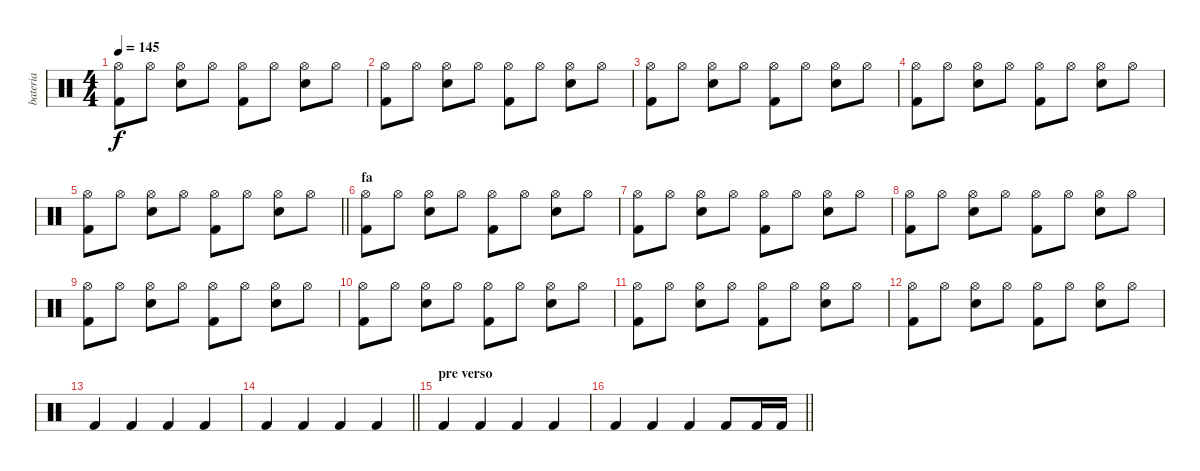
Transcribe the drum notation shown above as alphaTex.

\track ("bateria" "bateria") {instrument percussion}
\staff {score}
\articulation defaults
\ts (4 4)
\tempo 145
\clef neutral
\ks c
("Hi-Hat (open)" "Kick (hit) 2").8{dy f} "Hi-Hat (open)".8 ("Hi-Hat (open)" "Electric Snare (hit)").8 "Hi-Hat (open)".8 ("Hi-Hat (open)" "Kick (hit) 2").8 "Hi-Hat (open)".8 ("Hi-Hat (open)" "Electric Snare (hit)").8 "Hi-Hat (open)".8 |
("Hi-Hat (open)" "Kick (hit) 2").8 "Hi-Hat (open)".8 ("Hi-Hat (open)" "Electric Snare (hit)").8 "Hi-Hat (open)".8 ("Hi-Hat (open)" "Kick (hit) 2").8 "Hi-Hat (open)".8 ("Hi-Hat (open)" "Electric Snare (hit)").8 "Hi-Hat (open)".8 |
("Hi-Hat (open)" "Kick (hit) 2").8 "Hi-Hat (open)".8 ("Hi-Hat (open)" "Electric Snare (hit)").8 "Hi-Hat (open)".8 ("Hi-Hat (open)" "Kick (hit) 2").8 "Hi-Hat (open)".8 ("Hi-Hat (open)" "Electric Snare (hit)").8 "Hi-Hat (open)".8 |
("Hi-Hat (open)" "Kick (hit) 2").8 "Hi-Hat (open)".8 ("Hi-Hat (open)" "Electric Snare (hit)").8 "Hi-Hat (open)".8 ("Hi-Hat (open)" "Kick (hit) 2").8 "Hi-Hat (open)".8 ("Hi-Hat (open)" "Electric Snare (hit)").8 "Hi-Hat (open)".8 |
\barLineRight lightlight
("Hi-Hat (open)" "Kick (hit) 2").8 "Hi-Hat (open)".8 ("Hi-Hat (open)" "Electric Snare (hit)").8 "Hi-Hat (open)".8 ("Hi-Hat (open)" "Kick (hit) 2").8 "Hi-Hat (open)".8 ("Hi-Hat (open)" "Electric Snare (hit)").8 "Hi-Hat (open)".8 |
\section ("" "fa")
("Hi-Hat (open)" "Kick (hit) 2").8 "Hi-Hat (open)".8 ("Hi-Hat (open)" "Electric Snare (hit)").8 "Hi-Hat (open)".8 ("Hi-Hat (open)" "Kick (hit) 2").8 "Hi-Hat (open)".8 ("Hi-Hat (open)" "Electric Snare (hit)").8 "Hi-Hat (open)".8 |
("Hi-Hat (open)" "Kick (hit) 2").8 "Hi-Hat (open)".8 ("Hi-Hat (open)" "Electric Snare (hit)").8 "Hi-Hat (open)".8 ("Hi-Hat (open)" "Kick (hit) 2").8 "Hi-Hat (open)".8 ("Hi-Hat (open)" "Electric Snare (hit)").8 "Hi-Hat (open)".8 |
("Hi-Hat (open)" "Kick (hit) 2").8 "Hi-Hat (open)".8 ("Hi-Hat (open)" "Electric Snare (hit)").8 "Hi-Hat (open)".8 ("Hi-Hat (open)" "Kick (hit) 2").8 "Hi-Hat (open)".8 ("Hi-Hat (open)" "Electric Snare (hit)").8 "Hi-Hat (open)".8 |
("Hi-Hat (open)" "Kick (hit) 2").8 "Hi-Hat (open)".8 ("Hi-Hat (open)" "Electric Snare (hit)").8 "Hi-Hat (open)".8 ("Hi-Hat (open)" "Kick (hit) 2").8 "Hi-Hat (open)".8 ("Hi-Hat (open)" "Electric Snare (hit)").8 "Hi-Hat (open)".8 |
("Hi-Hat (open)" "Kick (hit) 2").8 "Hi-Hat (open)".8 ("Hi-Hat (open)" "Electric Snare (hit)").8 "Hi-Hat (open)".8 ("Hi-Hat (open)" "Kick (hit) 2").8 "Hi-Hat (open)".8 ("Hi-Hat (open)" "Electric Snare (hit)").8 "Hi-Hat (open)".8 |
("Hi-Hat (open)" "Kick (hit) 2").8 "Hi-Hat (open)".8 ("Hi-Hat (open)" "Electric Snare (hit)").8 "Hi-Hat (open)".8 ("Hi-Hat (open)" "Kick (hit) 2").8 "Hi-Hat (open)".8 ("Hi-Hat (open)" "Electric Snare (hit)").8 "Hi-Hat (open)".8 |
("Hi-Hat (open)" "Kick (hit) 2").8 "Hi-Hat (open)".8 ("Hi-Hat (open)" "Electric Snare (hit)").8 "Hi-Hat (open)".8 ("Hi-Hat (open)" "Kick (hit) 2").8 "Hi-Hat (open)".8 ("Hi-Hat (open)" "Electric Snare (hit)").8 "Hi-Hat (open)".8 |
"Kick (hit) 2".4 "Kick (hit) 2".4 "Kick (hit) 2".4 "Kick (hit) 2".4 |
\barLineRight lightlight "Kick (hit) 2".4 "Kick (hit) 2".4 "Kick (hit) 2".4 "Kick (hit) 2".4
|
\section ("" "pre verso")
"Kick (hit) 2".4 "Kick (hit) 2".4 "Kick (hit) 2".4 "Kick (hit) 2".4 |
\barLineRight lightlight "Kick (hit) 2".4 "Kick (hit) 2".4 "Kick (hit) 2".4 "Kick (hit) 2".8 "Kick (hit) 2".16 "Kick (hit) 2".16
